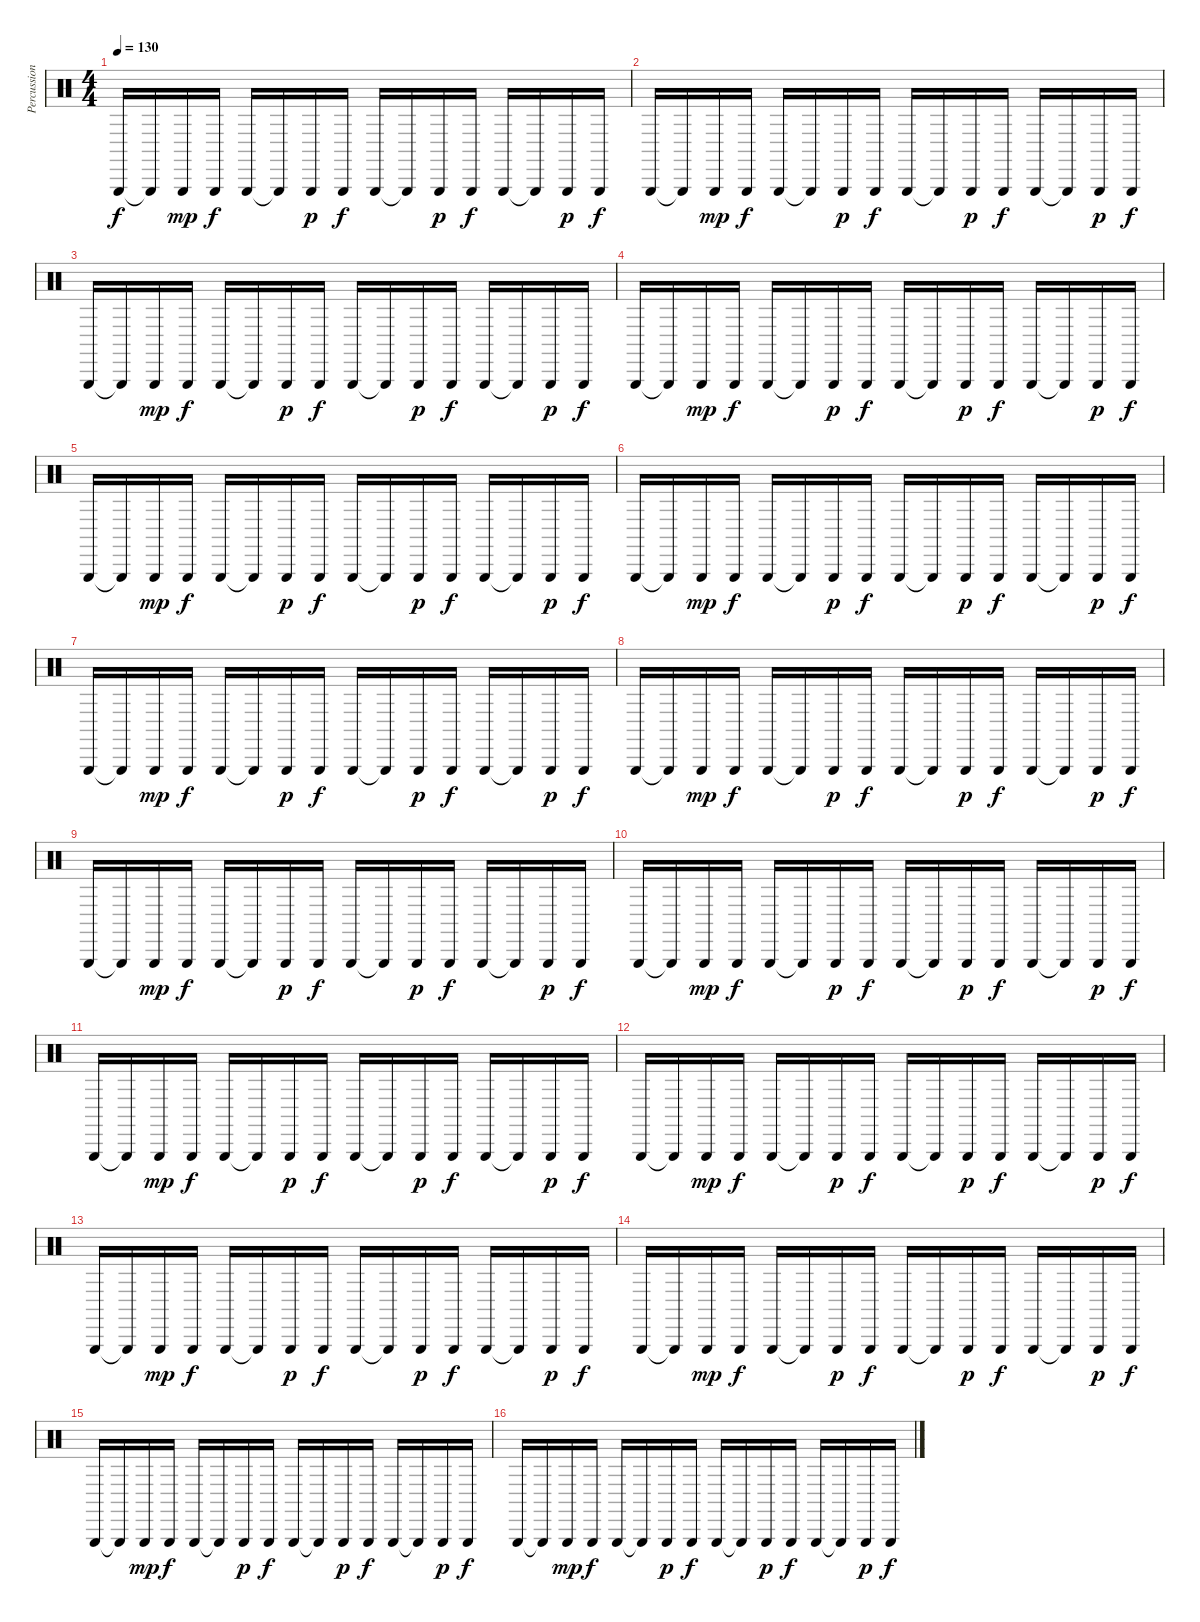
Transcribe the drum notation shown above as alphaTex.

\track ("Percussion" "Percussion") {instrument percussion}
\staff {score}
\articulation defaults
\ts (4 4)
\tempo 130
\clef neutral
\ks c "Triangle (hit)".16{dy f} "Triangle (hit)"{t}.16 "Triangle (hit)".16{dy mp} "Triangle (hit)".16{dy f} "Triangle (hit)".16 "Triangle (hit)"{t}.16 "Triangle (hit)".16{dy p} "Triangle (hit)".16{dy f} "Triangle (hit)".16 "Triangle (hit)"{t}.16 "Triangle (hit)".16{dy p} "Triangle (hit)".16{dy f} "Triangle (hit)".16 "Triangle (hit)"{t}.16 "Triangle (hit)".16{dy p} "Triangle (hit)".16{dy f}
|
"Triangle (hit)".16 "Triangle (hit)"{t}.16 "Triangle (hit)".16{dy mp} "Triangle (hit)".16{dy f} "Triangle (hit)".16 "Triangle (hit)"{t}.16 "Triangle (hit)".16{dy p} "Triangle (hit)".16{dy f} "Triangle (hit)".16 "Triangle (hit)"{t}.16 "Triangle (hit)".16{dy p} "Triangle (hit)".16{dy f} "Triangle (hit)".16 "Triangle (hit)"{t}.16 "Triangle (hit)".16{dy p} "Triangle (hit)".16{dy f} |
"Triangle (hit)".16 "Triangle (hit)"{t}.16 "Triangle (hit)".16{dy mp} "Triangle (hit)".16{dy f} "Triangle (hit)".16 "Triangle (hit)"{t}.16 "Triangle (hit)".16{dy p} "Triangle (hit)".16{dy f} "Triangle (hit)".16 "Triangle (hit)"{t}.16 "Triangle (hit)".16{dy p} "Triangle (hit)".16{dy f} "Triangle (hit)".16 "Triangle (hit)"{t}.16 "Triangle (hit)".16{dy p} "Triangle (hit)".16{dy f} |
"Triangle (hit)".16 "Triangle (hit)"{t}.16 "Triangle (hit)".16{dy mp} "Triangle (hit)".16{dy f} "Triangle (hit)".16 "Triangle (hit)"{t}.16 "Triangle (hit)".16{dy p} "Triangle (hit)".16{dy f} "Triangle (hit)".16 "Triangle (hit)"{t}.16 "Triangle (hit)".16{dy p} "Triangle (hit)".16{dy f} "Triangle (hit)".16 "Triangle (hit)"{t}.16 "Triangle (hit)".16{dy p} "Triangle (hit)".16{dy f} |
"Triangle (hit)".16 "Triangle (hit)"{t}.16 "Triangle (hit)".16{dy mp} "Triangle (hit)".16{dy f} "Triangle (hit)".16 "Triangle (hit)"{t}.16 "Triangle (hit)".16{dy p} "Triangle (hit)".16{dy f} "Triangle (hit)".16 "Triangle (hit)"{t}.16 "Triangle (hit)".16{dy p} "Triangle (hit)".16{dy f} "Triangle (hit)".16 "Triangle (hit)"{t}.16 "Triangle (hit)".16{dy p} "Triangle (hit)".16{dy f} |
"Triangle (hit)".16 "Triangle (hit)"{t}.16 "Triangle (hit)".16{dy mp} "Triangle (hit)".16{dy f} "Triangle (hit)".16 "Triangle (hit)"{t}.16 "Triangle (hit)".16{dy p} "Triangle (hit)".16{dy f} "Triangle (hit)".16 "Triangle (hit)"{t}.16 "Triangle (hit)".16{dy p} "Triangle (hit)".16{dy f} "Triangle (hit)".16 "Triangle (hit)"{t}.16 "Triangle (hit)".16{dy p} "Triangle (hit)".16{dy f} |
"Triangle (hit)".16 "Triangle (hit)"{t}.16 "Triangle (hit)".16{dy mp} "Triangle (hit)".16{dy f} "Triangle (hit)".16 "Triangle (hit)"{t}.16 "Triangle (hit)".16{dy p} "Triangle (hit)".16{dy f} "Triangle (hit)".16 "Triangle (hit)"{t}.16 "Triangle (hit)".16{dy p} "Triangle (hit)".16{dy f} "Triangle (hit)".16 "Triangle (hit)"{t}.16 "Triangle (hit)".16{dy p} "Triangle (hit)".16{dy f} |
"Triangle (hit)".16 "Triangle (hit)"{t}.16 "Triangle (hit)".16{dy mp} "Triangle (hit)".16{dy f} "Triangle (hit)".16 "Triangle (hit)"{t}.16 "Triangle (hit)".16{dy p} "Triangle (hit)".16{dy f} "Triangle (hit)".16 "Triangle (hit)"{t}.16 "Triangle (hit)".16{dy p} "Triangle (hit)".16{dy f} "Triangle (hit)".16 "Triangle (hit)"{t}.16 "Triangle (hit)".16{dy p} "Triangle (hit)".16{dy f} |
"Triangle (hit)".16 "Triangle (hit)"{t}.16 "Triangle (hit)".16{dy mp} "Triangle (hit)".16{dy f} "Triangle (hit)".16 "Triangle (hit)"{t}.16 "Triangle (hit)".16{dy p} "Triangle (hit)".16{dy f} "Triangle (hit)".16 "Triangle (hit)"{t}.16 "Triangle (hit)".16{dy p} "Triangle (hit)".16{dy f} "Triangle (hit)".16 "Triangle (hit)"{t}.16 "Triangle (hit)".16{dy p} "Triangle (hit)".16{dy f} |
"Triangle (hit)".16 "Triangle (hit)"{t}.16 "Triangle (hit)".16{dy mp} "Triangle (hit)".16{dy f} "Triangle (hit)".16 "Triangle (hit)"{t}.16 "Triangle (hit)".16{dy p} "Triangle (hit)".16{dy f} "Triangle (hit)".16 "Triangle (hit)"{t}.16 "Triangle (hit)".16{dy p} "Triangle (hit)".16{dy f} "Triangle (hit)".16 "Triangle (hit)"{t}.16 "Triangle (hit)".16{dy p} "Triangle (hit)".16{dy f} |
"Triangle (hit)".16 "Triangle (hit)"{t}.16 "Triangle (hit)".16{dy mp} "Triangle (hit)".16{dy f} "Triangle (hit)".16 "Triangle (hit)"{t}.16 "Triangle (hit)".16{dy p} "Triangle (hit)".16{dy f} "Triangle (hit)".16 "Triangle (hit)"{t}.16 "Triangle (hit)".16{dy p} "Triangle (hit)".16{dy f} "Triangle (hit)".16 "Triangle (hit)"{t}.16 "Triangle (hit)".16{dy p} "Triangle (hit)".16{dy f} |
"Triangle (hit)".16 "Triangle (hit)"{t}.16 "Triangle (hit)".16{dy mp} "Triangle (hit)".16{dy f} "Triangle (hit)".16 "Triangle (hit)"{t}.16 "Triangle (hit)".16{dy p} "Triangle (hit)".16{dy f} "Triangle (hit)".16 "Triangle (hit)"{t}.16 "Triangle (hit)".16{dy p} "Triangle (hit)".16{dy f} "Triangle (hit)".16 "Triangle (hit)"{t}.16 "Triangle (hit)".16{dy p} "Triangle (hit)".16{dy f} |
"Triangle (hit)".16 "Triangle (hit)"{t}.16 "Triangle (hit)".16{dy mp} "Triangle (hit)".16{dy f} "Triangle (hit)".16 "Triangle (hit)"{t}.16 "Triangle (hit)".16{dy p} "Triangle (hit)".16{dy f} "Triangle (hit)".16 "Triangle (hit)"{t}.16 "Triangle (hit)".16{dy p} "Triangle (hit)".16{dy f} "Triangle (hit)".16 "Triangle (hit)"{t}.16 "Triangle (hit)".16{dy p} "Triangle (hit)".16{dy f} |
"Triangle (hit)".16 "Triangle (hit)"{t}.16 "Triangle (hit)".16{dy mp} "Triangle (hit)".16{dy f} "Triangle (hit)".16 "Triangle (hit)"{t}.16 "Triangle (hit)".16{dy p} "Triangle (hit)".16{dy f} "Triangle (hit)".16 "Triangle (hit)"{t}.16 "Triangle (hit)".16{dy p} "Triangle (hit)".16{dy f} "Triangle (hit)".16 "Triangle (hit)"{t}.16 "Triangle (hit)".16{dy p} "Triangle (hit)".16{dy f} |
"Triangle (hit)".16 "Triangle (hit)"{t}.16 "Triangle (hit)".16{dy mp} "Triangle (hit)".16{dy f} "Triangle (hit)".16 "Triangle (hit)"{t}.16 "Triangle (hit)".16{dy p} "Triangle (hit)".16{dy f} "Triangle (hit)".16 "Triangle (hit)"{t}.16 "Triangle (hit)".16{dy p} "Triangle (hit)".16{dy f} "Triangle (hit)".16 "Triangle (hit)"{t}.16 "Triangle (hit)".16{dy p} "Triangle (hit)".16{dy f} |
"Triangle (hit)".16 "Triangle (hit)"{t}.16 "Triangle (hit)".16{dy mp} "Triangle (hit)".16{dy f} "Triangle (hit)".16 "Triangle (hit)"{t}.16 "Triangle (hit)".16{dy p} "Triangle (hit)".16{dy f} "Triangle (hit)".16 "Triangle (hit)"{t}.16 "Triangle (hit)".16{dy p} "Triangle (hit)".16{dy f} "Triangle (hit)".16 "Triangle (hit)"{t}.16 "Triangle (hit)".16{dy p} "Triangle (hit)".16{dy f}
